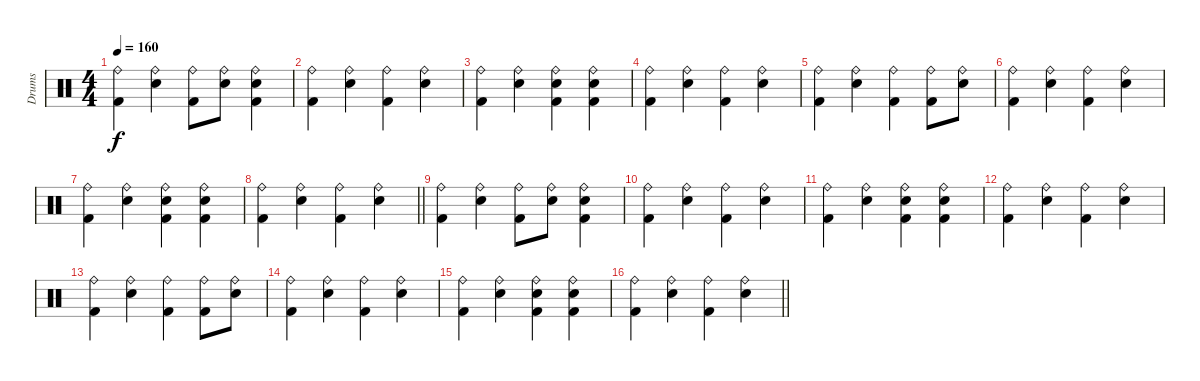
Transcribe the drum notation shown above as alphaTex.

\track ("Drums" "Drums") {instrument percussion}
\staff {score}
\articulation defaults
\ts (4 4)
\tempo 160
\clef neutral
\ks c
("Ride (bell)" "Kick (hit) 2").4{dy f} ("Ride (bell)" "Snare (hit) 2").4 ("Ride (bell)" "Kick (hit) 2").8 ("Ride (bell)" "Snare (hit) 2").8 ("Ride (bell)" "Snare (hit) 2" "Kick (hit) 2").4 |
("Ride (bell)" "Kick (hit) 2").4 ("Ride (bell)" "Snare (hit) 2").4 ("Ride (bell)" "Kick (hit) 2").4 ("Ride (bell)" "Snare (hit) 2").4 |
("Ride (bell)" "Kick (hit) 2").4 ("Ride (bell)" "Snare (hit) 2").4 ("Ride (bell)" "Snare (hit) 2" "Kick (hit) 2").4 ("Ride (bell)" "Snare (hit) 2" "Kick (hit) 2").4 |
("Ride (bell)" "Kick (hit) 2").4 ("Ride (bell)" "Snare (hit) 2").4 ("Ride (bell)" "Kick (hit) 2").4 ("Ride (bell)" "Snare (hit) 2").4 |
("Ride (bell)" "Kick (hit) 2").4 ("Ride (bell)" "Snare (hit) 2").4 ("Ride (bell)" "Kick (hit) 2").4 ("Ride (bell)" "Kick (hit) 2").8 ("Ride (bell)" "Snare (hit) 2").8 |
("Ride (bell)" "Kick (hit) 2").4 ("Ride (bell)" "Snare (hit) 2").4 ("Ride (bell)" "Kick (hit) 2").4 ("Ride (bell)" "Snare (hit) 2").4 |
("Ride (bell)" "Kick (hit) 2").4 ("Ride (bell)" "Snare (hit) 2").4 ("Ride (bell)" "Snare (hit) 2" "Kick (hit) 2").4 ("Ride (bell)" "Snare (hit) 2" "Kick (hit) 2").4 |
\barLineRight lightlight
("Ride (bell)" "Kick (hit) 2").4 ("Ride (bell)" "Snare (hit) 2").4 ("Ride (bell)" "Kick (hit) 2").4 ("Ride (bell)" "Snare (hit) 2").4 |
("Ride (bell)" "Kick (hit) 2").4 ("Ride (bell)" "Snare (hit) 2").4 ("Ride (bell)" "Kick (hit) 2").8 ("Ride (bell)" "Snare (hit) 2").8 ("Ride (bell)" "Snare (hit) 2" "Kick (hit) 2").4 |
("Ride (bell)" "Kick (hit) 2").4 ("Ride (bell)" "Snare (hit) 2").4 ("Ride (bell)" "Kick (hit) 2").4 ("Ride (bell)" "Snare (hit) 2").4 |
("Ride (bell)" "Kick (hit) 2").4 ("Ride (bell)" "Snare (hit) 2").4 ("Ride (bell)" "Snare (hit) 2" "Kick (hit) 2").4 ("Ride (bell)" "Snare (hit) 2" "Kick (hit) 2").4 |
("Ride (bell)" "Kick (hit) 2").4 ("Ride (bell)" "Snare (hit) 2").4 ("Ride (bell)" "Kick (hit) 2").4 ("Ride (bell)" "Snare (hit) 2").4 |
("Ride (bell)" "Kick (hit) 2").4 ("Ride (bell)" "Snare (hit) 2").4 ("Ride (bell)" "Kick (hit) 2").4 ("Ride (bell)" "Kick (hit) 2").8 ("Ride (bell)" "Snare (hit) 2").8 |
("Ride (bell)" "Kick (hit) 2").4 ("Ride (bell)" "Snare (hit) 2").4 ("Ride (bell)" "Kick (hit) 2").4 ("Ride (bell)" "Snare (hit) 2").4 |
("Ride (bell)" "Kick (hit) 2").4 ("Ride (bell)" "Snare (hit) 2").4 ("Ride (bell)" "Snare (hit) 2" "Kick (hit) 2").4 ("Ride (bell)" "Snare (hit) 2" "Kick (hit) 2").4 |
\barLineRight lightlight
("Ride (bell)" "Kick (hit) 2").4 ("Ride (bell)" "Snare (hit) 2").4 ("Ride (bell)" "Kick (hit) 2").4 ("Ride (bell)" "Snare (hit) 2").4
